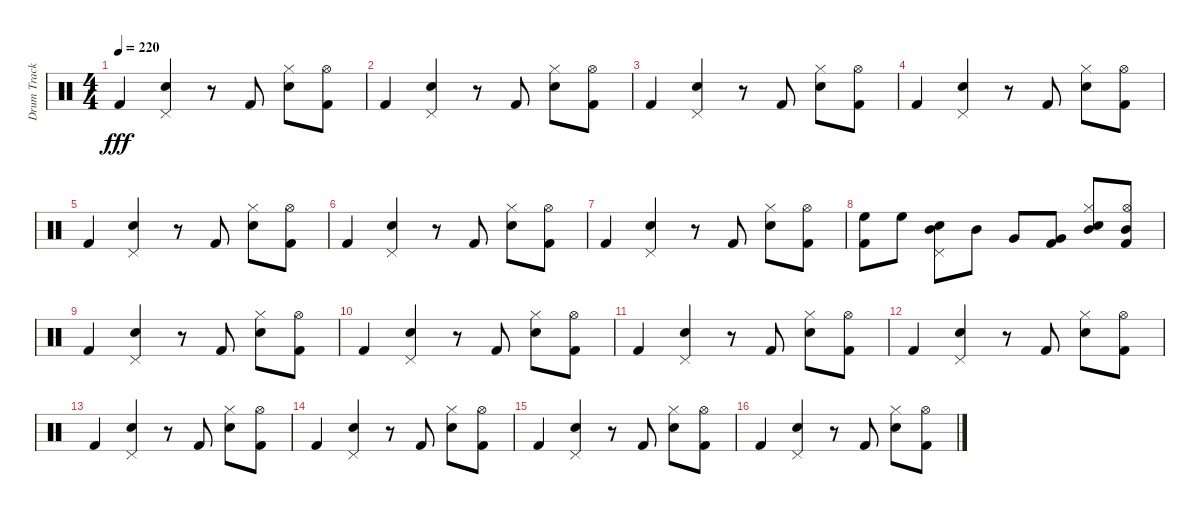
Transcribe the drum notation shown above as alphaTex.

\track ("Drum Track" "Drum Track") {instrument percussion}
\staff {score}
\articulation defaults
\ts (4 4)
\tempo 220
\clef neutral
\ks c "Kick (hit) 2".4{dy fff}
("Snare (hit) 2" "Pedal Hi-Hat (hit)").4 r.8 "Kick (hit) 2".8 ("Snare (hit) 2" "Hi-Hat (closed)").8 ("Kick (hit) 2" "Hi-Hat (open)").8 |
"Kick (hit) 2".4 ("Snare (hit) 2" "Pedal Hi-Hat (hit)").4 r.8 "Kick (hit) 2".8 ("Snare (hit) 2" "Hi-Hat (closed)").8 ("Kick (hit) 2" "Hi-Hat (open)").8 |
"Kick (hit) 2".4 ("Snare (hit) 2" "Pedal Hi-Hat (hit)").4 r.8 "Kick (hit) 2".8 ("Snare (hit) 2" "Hi-Hat (closed)").8 ("Kick (hit) 2" "Hi-Hat (open)").8 |
"Kick (hit) 2".4 ("Snare (hit) 2" "Pedal Hi-Hat (hit)").4 r.8 "Kick (hit) 2".8 ("Snare (hit) 2" "Hi-Hat (closed)").8 ("Kick (hit) 2" "Hi-Hat (open)").8 |
"Kick (hit) 2".4 ("Snare (hit) 2" "Pedal Hi-Hat (hit)").4 r.8 "Kick (hit) 2".8 ("Snare (hit) 2" "Hi-Hat (closed)").8 ("Kick (hit) 2" "Hi-Hat (open)").8 |
"Kick (hit) 2".4 ("Snare (hit) 2" "Pedal Hi-Hat (hit)").4 r.8 "Kick (hit) 2".8 ("Snare (hit) 2" "Hi-Hat (closed)").8 ("Kick (hit) 2" "Hi-Hat (open)").8 |
"Kick (hit) 2".4 ("Snare (hit) 2" "Pedal Hi-Hat (hit)").4 r.8 "Kick (hit) 2".8 ("Snare (hit) 2" "Hi-Hat (closed)").8 ("Kick (hit) 2" "Hi-Hat (open)").8 |
("Kick (hit) 2" "High Floor Tom (hit)").8 "High Floor Tom (hit)".8 ("Snare (hit) 2" "Pedal Hi-Hat (hit)" "Mid Tom (hit)").8 "Mid Tom (hit)".8 "Very Low Tom (hit)".8 ("Kick (hit) 2" "Very Low Tom (hit)").8 ("Snare (hit) 2" "Hi-Hat (closed)" "Mid Tom (hit)").8 ("Kick (hit) 2" "Hi-Hat (open)" "Mid Tom (hit)").8 |
"Kick (hit) 2".4 ("Snare (hit) 2" "Pedal Hi-Hat (hit)").4 r.8 "Kick (hit) 2".8 ("Snare (hit) 2" "Hi-Hat (closed)").8 ("Kick (hit) 2" "Hi-Hat (open)").8 |
"Kick (hit) 2".4 ("Snare (hit) 2" "Pedal Hi-Hat (hit)").4 r.8 "Kick (hit) 2".8 ("Snare (hit) 2" "Hi-Hat (closed)").8 ("Kick (hit) 2" "Hi-Hat (open)").8 |
"Kick (hit) 2".4 ("Snare (hit) 2" "Pedal Hi-Hat (hit)").4 r.8 "Kick (hit) 2".8 ("Snare (hit) 2" "Hi-Hat (closed)").8 ("Kick (hit) 2" "Hi-Hat (open)").8 |
"Kick (hit) 2".4 ("Snare (hit) 2" "Pedal Hi-Hat (hit)").4 r.8 "Kick (hit) 2".8 ("Snare (hit) 2" "Hi-Hat (closed)").8 ("Kick (hit) 2" "Hi-Hat (open)").8 |
"Kick (hit) 2".4 ("Snare (hit) 2" "Pedal Hi-Hat (hit)").4 r.8 "Kick (hit) 2".8 ("Snare (hit) 2" "Hi-Hat (closed)").8 ("Kick (hit) 2" "Hi-Hat (open)").8 |
"Kick (hit) 2".4 ("Snare (hit) 2" "Pedal Hi-Hat (hit)").4 r.8 "Kick (hit) 2".8 ("Snare (hit) 2" "Hi-Hat (closed)").8 ("Kick (hit) 2" "Hi-Hat (open)").8 |
"Kick (hit) 2".4 ("Snare (hit) 2" "Pedal Hi-Hat (hit)").4 r.8 "Kick (hit) 2".8 ("Snare (hit) 2" "Hi-Hat (closed)").8 ("Kick (hit) 2" "Hi-Hat (open)").8 |
"Kick (hit) 2".4 ("Snare (hit) 2" "Pedal Hi-Hat (hit)").4 r.8 "Kick (hit) 2".8 ("Snare (hit) 2" "Hi-Hat (closed)").8 ("Kick (hit) 2" "Hi-Hat (open)").8
